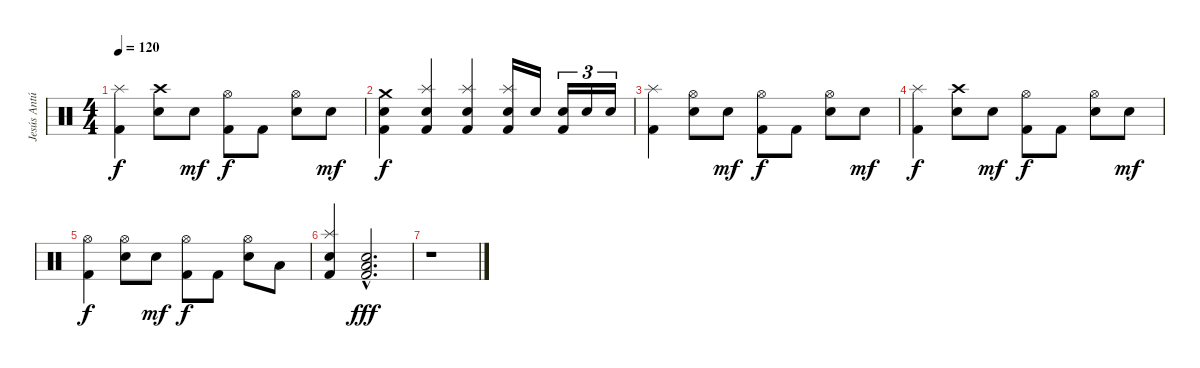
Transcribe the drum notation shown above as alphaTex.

\track ("Jesús Antúnez" "Jesús Antú") {instrument percussion}
\staff {score}
\articulation defaults
\ts (4 4)
\tempo 120
\clef neutral
\ks c
("Kick (hit) 2" "Splash (hit)").4{dy f} ("Electric Snare (hit)" "Crash high (hit)").8 "Electric Snare (hit)".8{dy mf} ("Kick (hit) 2" "Hi-Hat (open)").8{dy f} "Kick (hit) 2".8 ("Electric Snare (hit)" "Hi-Hat (open)").8 "Electric Snare (hit)".8{dy mf} |
("Kick (hit) 2" "Electric Snare (hit)" "Crash medium (hit)").4{dy f} ("Kick (hit) 2" "Electric Snare (hit)" "Splash (hit)").4 ("Kick (hit) 2" "Electric Snare (hit)" "Splash (hit)").4 ("Kick (hit) 2" "Electric Snare (hit)" "Splash (hit)").16 "Electric Snare (hit)".16 ("Kick (hit) 2" "Electric Snare (hit)").16{tu (3 2)} "Electric Snare (hit)".16{tu (3 2)} "Electric Snare (hit)".16{tu (3 2)} |
("Kick (hit) 2" "Splash (hit)").4 ("Electric Snare (hit)" "Hi-Hat (open)").8 "Electric Snare (hit)".8{dy mf} ("Kick (hit) 2" "Hi-Hat (open)").8{dy f} "Kick (hit) 2".8 ("Electric Snare (hit)" "Hi-Hat (open)").8 "Electric Snare (hit)".8{dy mf} |
("Kick (hit) 2" "Splash (hit)").4{dy f} ("Electric Snare (hit)" "Crash high (hit)").8 "Electric Snare (hit)".8{dy mf} ("Kick (hit) 2" "Hi-Hat (open)").8{dy f} "Kick (hit) 2".8 ("Electric Snare (hit)" "Hi-Hat (open)").8 "Electric Snare (hit)".8{dy mf} |
("Kick (hit) 2" "Hi-Hat (open)").4{dy f} ("Electric Snare (hit)" "Hi-Hat (open)").8 "Electric Snare (hit)".8{dy mf} ("Kick (hit) 2" "Hi-Hat (open)").8{dy f} "Kick (hit) 2".8 ("Electric Snare (hit)" "Hi-Hat (open)").8 "Low Tom (hit)".8 |
("Kick (hit) 2" "Electric Snare (hit)" "Splash (hit)").4 ("Kick (hit) 2"{hac} "Electric Snare (hit)"{hac} "Low Tom (hit)"{hac}).2{d dy fff} |
r.1
